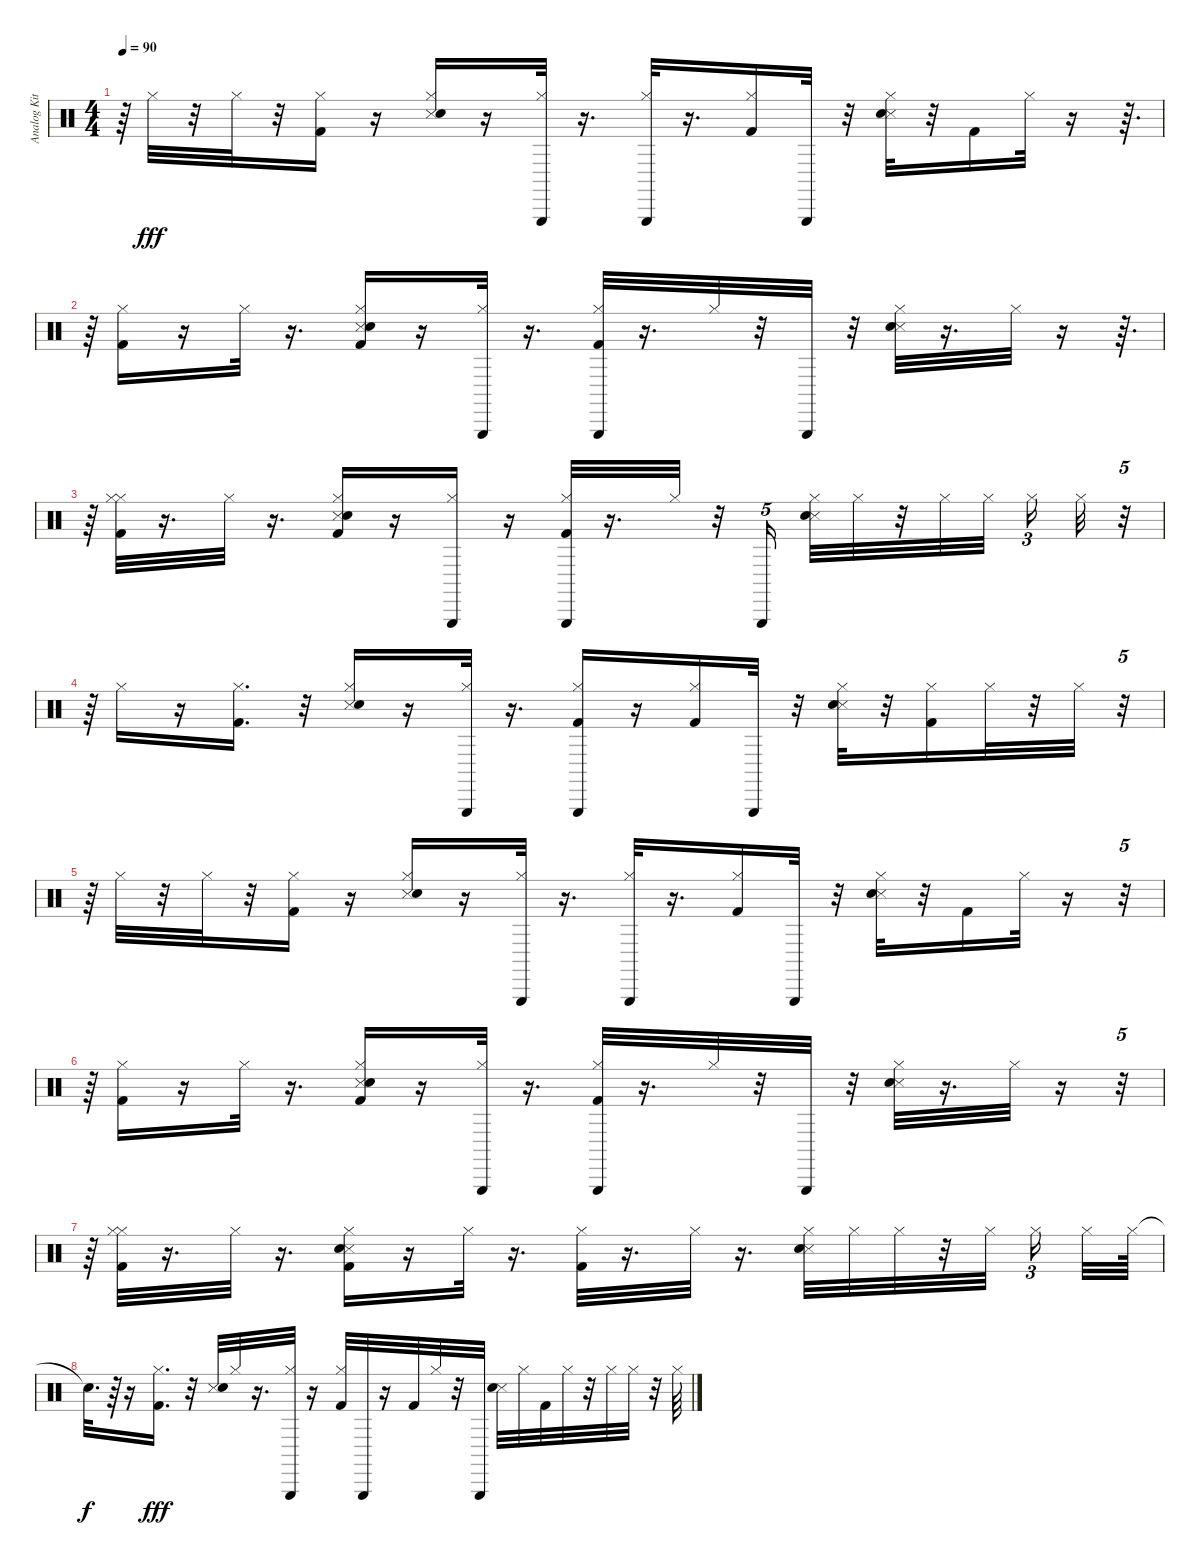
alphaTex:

\track ("Analog Kit" "Analog Kit") {instrument percussion}
\staff {score}
\articulation defaults
\ts (4 4)
\tempo 90
\clef neutral
\ks c
r.64{dy fff} "Hi-Hat (closed)".32 r.32 "Hi-Hat (closed)".32 r.32 ("Hi-Hat (closed)" "Kick (hit) 2").16 r.16 ("Snare (side stick) 3" "Electric Snare (hit)" "Hi-Hat (closed)").16 r.16 ("Hi-Hat (closed)" "Triangle (hit)").32 r.16{d} ("Hi-Hat (closed)" "Triangle (hit)").32 r.16{d} ("Kick (hit) 2" "Hi-Hat (closed)").16 "Triangle (hit)".32 r.32 ("Snare (side stick) 3" "Electric Snare (hit)" "Hi-Hat (closed)").32 r.32 "Kick (hit) 2".16 "Hi-Hat (closed)".32 r.16 r.64{d} |
r.64 ("Hi-Hat (closed)" "Kick (hit) 2").16 r.16 "Hi-Hat (closed)".32 r.16{d} ("Snare (side stick) 3" "Kick (hit) 2" "Electric Snare (hit)" "Hi-Hat (closed)").16 r.16 ("Triangle (hit)" "Hi-Hat (closed)").32 r.16{d} ("Kick (hit) 2" "Hi-Hat (closed)" "Triangle (hit)").32 r.16{d} "Hi-Hat (closed)".32 r.32 "Triangle (hit)".32 r.32 ("Snare (side stick) 3" "Electric Snare (hit)" "Hi-Hat (closed)").32 r.16{d} "Hi-Hat (closed)".32 r.16 r.64{d} |
r.64 ("Hi-Hat (closed)" "Hi-Hat (closed)" "Kick (hit) 2").32 r.16{d} "Hi-Hat (closed)".32 r.16{d} ("Hi-Hat (closed)" "Snare (side stick) 3" "Kick (hit) 2" "Electric Snare (hit)").16 r.16 ("Hi-Hat (closed)" "Triangle (hit)").16 r.16 ("Kick (hit) 2" "Hi-Hat (closed)" "Triangle (hit)").32 r.16{d} "Hi-Hat (closed)".32 r.32 "Triangle (hit)".16{tu (5 4)} ("Hi-Hat (closed)" "Snare (side stick) 3" "Electric Snare (hit)").32 "Hi-Hat (closed)".32 r.32 "Hi-Hat (closed)".32 "Hi-Hat (closed)".32{beam splitsecondary} "Hi-Hat (closed)".16{tu (3 2)} "Hi-Hat (closed)".32 r.32{tu (5 4)} |
r.64 "Hi-Hat (closed)".16 r.16 ("Kick (hit) 2" "Hi-Hat (closed)").16{d} r.32 ("Snare (side stick) 3" "Electric Snare (hit)" "Hi-Hat (closed)").16 r.16 ("Hi-Hat (closed)" "Triangle (hit)").32 r.16{d} ("Hi-Hat (closed)" "Kick (hit) 2" "Triangle (hit)").16 r.16 ("Kick (hit) 2" "Hi-Hat (closed)").16 "Triangle (hit)".32 r.32 ("Snare (side stick) 3" "Electric Snare (hit)" "Hi-Hat (closed)").32 r.32 ("Kick (hit) 2" "Hi-Hat (closed)").16 "Hi-Hat (closed)".32 r.32 "Hi-Hat (closed)".32 r.32{tu (5 4)} |
r.64 "Hi-Hat (closed)".32 r.32 "Hi-Hat (closed)".32 r.32 ("Hi-Hat (closed)" "Kick (hit) 2").16 r.16 ("Snare (side stick) 3" "Electric Snare (hit)" "Hi-Hat (closed)").16 r.16 ("Hi-Hat (closed)" "Triangle (hit)").32 r.16{d} ("Hi-Hat (closed)" "Triangle (hit)").32 r.16{d} ("Kick (hit) 2" "Hi-Hat (closed)").16 "Triangle (hit)".32 r.32 ("Snare (side stick) 3" "Electric Snare (hit)" "Hi-Hat (closed)").32 r.32 "Kick (hit) 2".16 "Hi-Hat (closed)".32 r.16 r.32{tu (5 4)} |
r.64 ("Hi-Hat (closed)" "Kick (hit) 2").16 r.16 "Hi-Hat (closed)".32 r.16{d} ("Snare (side stick) 3" "Kick (hit) 2" "Electric Snare (hit)" "Hi-Hat (closed)").16 r.16 ("Triangle (hit)" "Hi-Hat (closed)").32 r.16{d} ("Kick (hit) 2" "Hi-Hat (closed)" "Triangle (hit)").32 r.16{d} "Hi-Hat (closed)".32 r.32 "Triangle (hit)".32 r.32 ("Snare (side stick) 3" "Electric Snare (hit)" "Hi-Hat (closed)").32 r.16{d} "Hi-Hat (closed)".32 r.16 r.32{tu (5 4)} |
r.64 ("Hi-Hat (closed)" "Hi-Hat (closed)" "Kick (hit) 2").32 r.16{d} "Hi-Hat (closed)".32 r.16{d} ("Hi-Hat (closed)" "Snare (side stick) 3" "Kick (hit) 2" "Electric Snare (hit)").16 r.16 "Hi-Hat (closed)".32 r.16{d} ("Kick (hit) 2" "Hi-Hat (closed)").32 r.16{d} "Hi-Hat (closed)".32 r.16{d} ("Hi-Hat (closed)" "Snare (side stick) 3" "Electric Snare (hit)").32 "Hi-Hat (closed)".32 "Hi-Hat (closed)".32 r.32 "Hi-Hat (closed)".32{beam splitsecondary} "Hi-Hat (closed)".16{tu (3 2) beam splitsecondary} "Hi-Hat (closed)".32 "Hi-Hat (closed)".64 |
"Snare (hit)"{t}.32{d dy f} r.64 r.16 ("Kick (hit) 2" "Hi-Hat (closed)").16{d dy fff} r.32 ("Snare (side stick) 3" "Electric Snare (hit)").32 "Hi-Hat (closed)".32 r.16{d} ("Hi-Hat (closed)" "Triangle (hit)").32 r.16 ("Hi-Hat (closed)" "Kick (hit) 2").32 "Triangle (hit)".32 r.16 "Kick (hit) 2".32 "Hi-Hat (closed)".32 r.32 "Triangle (hit)".32 ("Snare (side stick) 3" "Electric Snare (hit)").32 "Hi-Hat (closed)".32 "Kick (hit) 2".32 "Hi-Hat (closed)".32 r.32 "Hi-Hat (closed)".32 "Hi-Hat (closed)".32 r.32 "Hi-Hat (closed)".64
